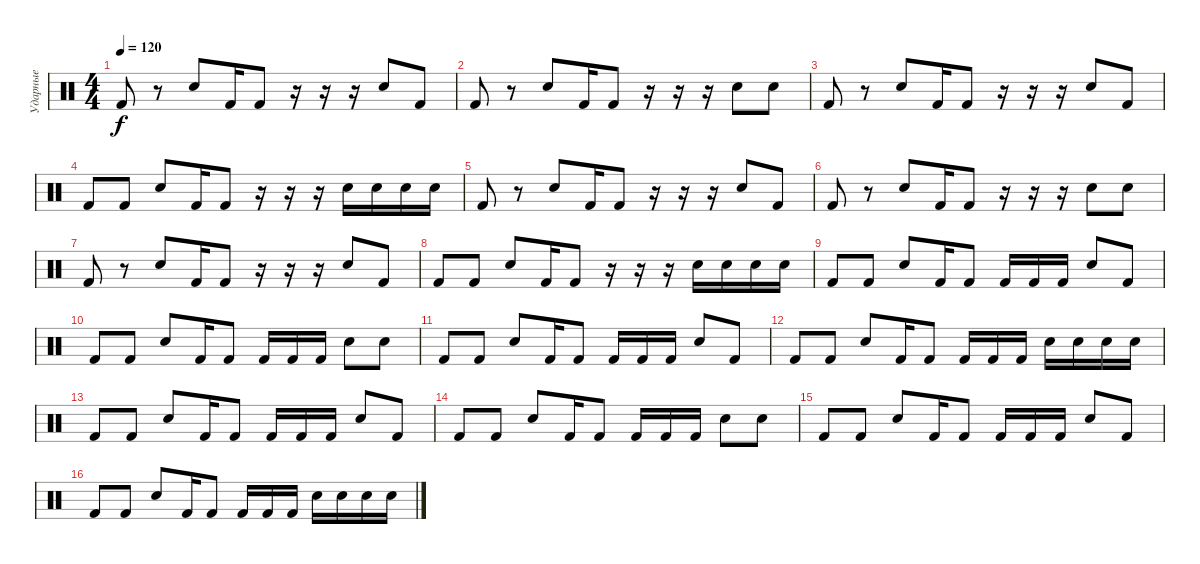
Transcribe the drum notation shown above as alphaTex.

\track ("Ударные" "Ударные") {instrument percussion}
\staff {score}
\articulation defaults
\ts (4 4)
\tempo 120
\clef neutral
\ks c "Kick (hit) 2".8{dy f}
r.8 "Electric Snare (hit)".8 "Kick (hit) 2".16 "Kick (hit) 2".8 r.16 r.16 r.16 "Electric Snare (hit)".8 "Kick (hit) 2".8 |
"Kick (hit) 2".8 r.8 "Electric Snare (hit)".8 "Kick (hit) 2".16 "Kick (hit) 2".8 r.16 r.16 r.16 "Electric Snare (hit)".8 "Electric Snare (hit)".8 |
"Kick (hit) 2".8 r.8 "Electric Snare (hit)".8 "Kick (hit) 2".16 "Kick (hit) 2".8 r.16 r.16 r.16 "Electric Snare (hit)".8 "Kick (hit) 2".8 |
"Kick (hit) 2".8 "Kick (hit) 2".8 "Electric Snare (hit)".8 "Kick (hit) 2".16 "Kick (hit) 2".8 r.16 r.16 r.16 "Electric Snare (hit)".16 "Electric Snare (hit)".16 "Electric Snare (hit)".16 "Electric Snare (hit)".16 |
"Kick (hit) 2".8 r.8 "Electric Snare (hit)".8 "Kick (hit) 2".16 "Kick (hit) 2".8 r.16 r.16 r.16 "Electric Snare (hit)".8 "Kick (hit) 2".8 |
"Kick (hit) 2".8 r.8 "Electric Snare (hit)".8 "Kick (hit) 2".16 "Kick (hit) 2".8 r.16 r.16 r.16 "Electric Snare (hit)".8 "Electric Snare (hit)".8 |
"Kick (hit) 2".8 r.8 "Electric Snare (hit)".8 "Kick (hit) 2".16 "Kick (hit) 2".8 r.16 r.16 r.16 "Electric Snare (hit)".8 "Kick (hit) 2".8 |
"Kick (hit) 2".8 "Kick (hit) 2".8 "Electric Snare (hit)".8 "Kick (hit) 2".16 "Kick (hit) 2".8 r.16 r.16 r.16 "Electric Snare (hit)".16 "Electric Snare (hit)".16 "Electric Snare (hit)".16 "Electric Snare (hit)".16 |
"Kick (hit) 2".8 "Kick (hit) 2".8 "Electric Snare (hit)".8 "Kick (hit) 2".16 "Kick (hit) 2".8 "Kick (hit) 2".16 "Kick (hit) 2".16 "Kick (hit) 2".16 "Electric Snare (hit)".8 "Kick (hit) 2".8 |
"Kick (hit) 2".8 "Kick (hit) 2".8 "Electric Snare (hit)".8 "Kick (hit) 2".16 "Kick (hit) 2".8 "Kick (hit) 2".16 "Kick (hit) 2".16 "Kick (hit) 2".16 "Electric Snare (hit)".8 "Electric Snare (hit)".8 |
"Kick (hit) 2".8 "Kick (hit) 2".8 "Electric Snare (hit)".8 "Kick (hit) 2".16 "Kick (hit) 2".8 "Kick (hit) 2".16 "Kick (hit) 2".16 "Kick (hit) 2".16 "Electric Snare (hit)".8 "Kick (hit) 2".8 |
"Kick (hit) 2".8 "Kick (hit) 2".8 "Electric Snare (hit)".8 "Kick (hit) 2".16 "Kick (hit) 2".8 "Kick (hit) 2".16 "Kick (hit) 2".16 "Kick (hit) 2".16 "Electric Snare (hit)".16 "Electric Snare (hit)".16 "Electric Snare (hit)".16 "Electric Snare (hit)".16 |
"Kick (hit) 2".8 "Kick (hit) 2".8 "Electric Snare (hit)".8 "Kick (hit) 2".16 "Kick (hit) 2".8 "Kick (hit) 2".16 "Kick (hit) 2".16 "Kick (hit) 2".16 "Electric Snare (hit)".8 "Kick (hit) 2".8 |
"Kick (hit) 2".8 "Kick (hit) 2".8 "Electric Snare (hit)".8 "Kick (hit) 2".16 "Kick (hit) 2".8 "Kick (hit) 2".16 "Kick (hit) 2".16 "Kick (hit) 2".16 "Electric Snare (hit)".8 "Electric Snare (hit)".8 |
"Kick (hit) 2".8 "Kick (hit) 2".8 "Electric Snare (hit)".8 "Kick (hit) 2".16 "Kick (hit) 2".8 "Kick (hit) 2".16 "Kick (hit) 2".16 "Kick (hit) 2".16 "Electric Snare (hit)".8 "Kick (hit) 2".8 |
"Kick (hit) 2".8 "Kick (hit) 2".8 "Electric Snare (hit)".8 "Kick (hit) 2".16 "Kick (hit) 2".8 "Kick (hit) 2".16 "Kick (hit) 2".16 "Kick (hit) 2".16 "Electric Snare (hit)".16 "Electric Snare (hit)".16 "Electric Snare (hit)".16 "Electric Snare (hit)".16
